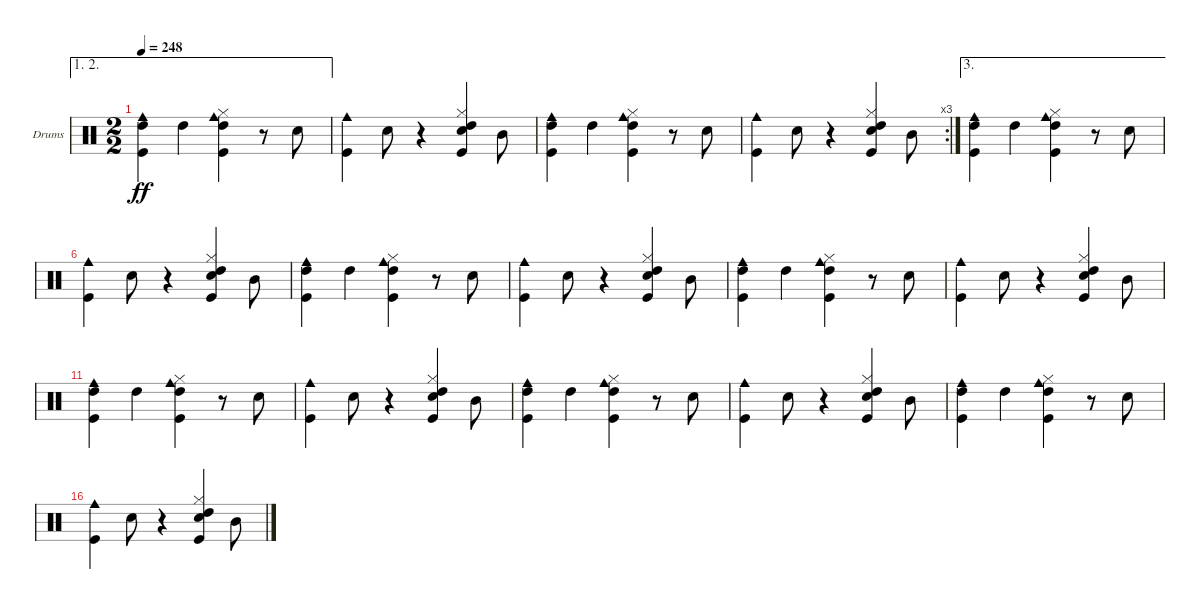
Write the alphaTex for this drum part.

\bracketExtendMode nobrackets
\firstSystemTrackNameOrientation horizontal
\otherSystemsTrackNameOrientation horizontal
\defaultBarNumberDisplay FirstOfSystem
\track ("Drumkit" "Drums") {instrument percussion}
\staff {score}
\articulation defaults
\ae (1 2)
\ts (2 2)
\tempo 248
\clef neutral
\ks c
("Cowbell medium (hit)" "Kick (hit)" "High Tom (hit)").4{dy ff} "High Tom (hit)".4 ("Kick (hit)" "High Tom (hit)" "Cowbell medium (hit)" "Hi-Hat (closed)").4 r.8 "Snare (hit) 2".8 |
("Kick (hit)" "Cowbell medium (hit)").4 "Snare (hit) 2".8 r.4 ("Kick (hit)" "Snare (hit) 2" "High Tom (hit)" "Hi-Hat (closed)").4 "Mid Tom (hit)".8 |
("Cowbell medium (hit)" "Kick (hit)" "High Tom (hit)").4 "High Tom (hit)".4 ("Kick (hit)" "High Tom (hit)" "Cowbell medium (hit)" "Hi-Hat (closed)").4 r.8 "Snare (hit) 2".8 |
\rc 3
("Kick (hit)" "Cowbell medium (hit)").4 "Snare (hit) 2".8 r.4 ("Kick (hit)" "Snare (hit) 2" "High Tom (hit)" "Hi-Hat (closed)").4 "Mid Tom (hit)".8 |
\ae 3
("Cowbell medium (hit)" "Kick (hit)" "High Tom (hit)").4 "High Tom (hit)".4 ("Kick (hit)" "High Tom (hit)" "Cowbell medium (hit)" "Hi-Hat (closed)").4 r.8 "Snare (hit) 2".8 |
("Kick (hit)" "Cowbell medium (hit)").4 "Snare (hit) 2".8 r.4 ("Kick (hit)" "Snare (hit) 2" "High Tom (hit)" "Hi-Hat (closed)").4 "Mid Tom (hit)".8 |
("Cowbell medium (hit)" "Kick (hit)" "High Tom (hit)").4 "High Tom (hit)".4 ("Kick (hit)" "High Tom (hit)" "Cowbell medium (hit)" "Hi-Hat (closed)").4 r.8 "Snare (hit) 2".8 |
("Kick (hit)" "Cowbell medium (hit)").4 "Snare (hit) 2".8 r.4 ("Kick (hit)" "Snare (hit) 2" "High Tom (hit)" "Hi-Hat (closed)").4 "Mid Tom (hit)".8 |
("Cowbell medium (hit)" "Kick (hit)" "High Tom (hit)").4 "High Tom (hit)".4 ("Kick (hit)" "High Tom (hit)" "Cowbell medium (hit)" "Hi-Hat (closed)").4 r.8 "Snare (hit) 2".8 |
("Kick (hit)" "Cowbell medium (hit)").4 "Snare (hit) 2".8 r.4 ("Kick (hit)" "Snare (hit) 2" "High Tom (hit)" "Hi-Hat (closed)").4 "Mid Tom (hit)".8 |
("Cowbell medium (hit)" "Kick (hit)" "High Tom (hit)").4 "High Tom (hit)".4 ("Kick (hit)" "High Tom (hit)" "Cowbell medium (hit)" "Hi-Hat (closed)").4 r.8 "Snare (hit) 2".8 |
("Kick (hit)" "Cowbell medium (hit)").4 "Snare (hit) 2".8 r.4 ("Kick (hit)" "Snare (hit) 2" "High Tom (hit)" "Hi-Hat (closed)").4 "Mid Tom (hit)".8 |
("Cowbell medium (hit)" "Kick (hit)" "High Tom (hit)").4 "High Tom (hit)".4 ("Kick (hit)" "High Tom (hit)" "Cowbell medium (hit)" "Hi-Hat (closed)").4 r.8 "Snare (hit) 2".8 |
("Kick (hit)" "Cowbell medium (hit)").4 "Snare (hit) 2".8 r.4 ("Kick (hit)" "Snare (hit) 2" "High Tom (hit)" "Hi-Hat (closed)").4 "Mid Tom (hit)".8 |
("Cowbell medium (hit)" "Kick (hit)" "High Tom (hit)").4 "High Tom (hit)".4 ("Kick (hit)" "High Tom (hit)" "Cowbell medium (hit)" "Hi-Hat (closed)").4 r.8 "Snare (hit) 2".8 |
("Kick (hit)" "Cowbell medium (hit)").4 "Snare (hit) 2".8 r.4 ("Kick (hit)" "Snare (hit) 2" "High Tom (hit)" "Hi-Hat (closed)").4 "Mid Tom (hit)".8
